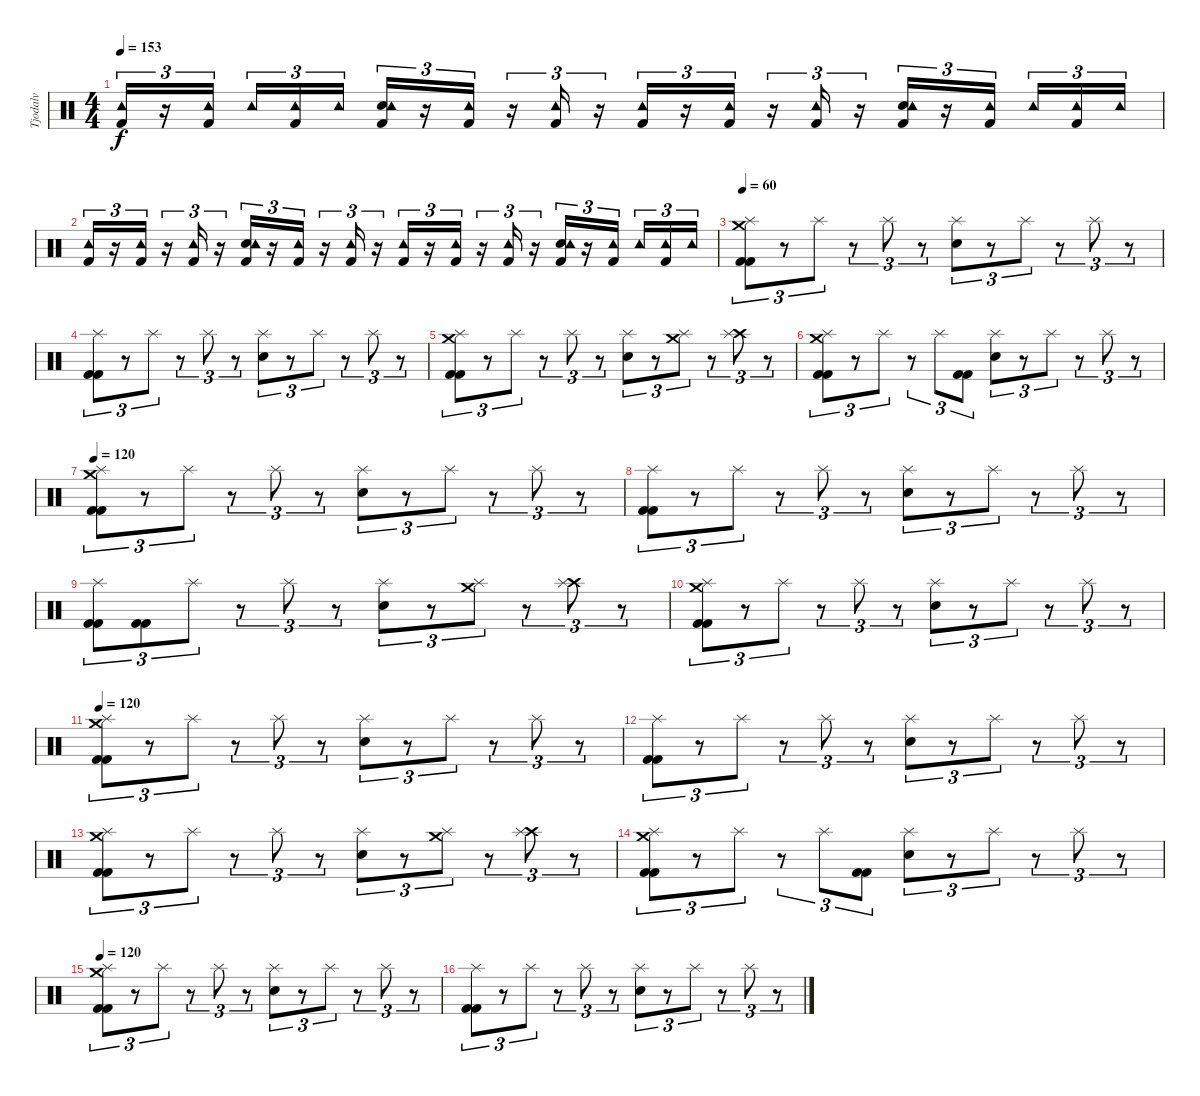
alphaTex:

\track ("Tjodalv" "Tjodalv") {instrument percussion}
\staff {score}
\articulation defaults
\ts (4 4)
\tempo 153
\clef neutral
\ks c
("Kick (hit) 2" "Tambourine (hit)").16{tu (3 2) dy f} r.16{tu (3 2)} ("Kick (hit) 2" "Tambourine (hit)").16{tu (3 2)} "Tambourine (hit)".16{tu (3 2)} ("Kick (hit) 2" "Tambourine (hit)").16{tu (3 2)} "Tambourine (hit)".16{tu (3 2)} ("Kick (hit) 2" "Snare (hit) 2" "Tambourine (hit)").16{tu (3 2)} r.16{tu (3 2)} ("Kick (hit) 2" "Tambourine (hit)").16{tu (3 2)} r.16{tu (3 2)} ("Kick (hit) 2" "Tambourine (hit)").16{tu (3 2)} r.16{tu (3 2)} ("Kick (hit) 2" "Tambourine (hit)").16{tu (3 2)} r.16{tu (3 2)} ("Kick (hit) 2" "Tambourine (hit)").16{tu (3 2)} r.16{tu (3 2)} ("Kick (hit) 2" "Tambourine (hit)").16{tu (3 2)} r.16{tu (3 2)} ("Kick (hit) 2" "Snare (hit) 2" "Tambourine (hit)").16{tu (3 2)} r.16{tu (3 2)} ("Kick (hit) 2" "Tambourine (hit)").16{tu (3 2)} "Tambourine (hit)".16{tu (3 2)} ("Kick (hit) 2" "Tambourine (hit)").16{tu (3 2)} "Tambourine (hit)".16{tu (3 2)} |
("Kick (hit) 2" "Tambourine (hit)").16{tu (3 2)} r.16{tu (3 2)} ("Kick (hit) 2" "Tambourine (hit)").16{tu (3 2)} r.16{tu (3 2)} ("Kick (hit) 2" "Tambourine (hit)").16{tu (3 2)} r.16{tu (3 2)} ("Kick (hit) 2" "Snare (hit) 2" "Tambourine (hit)").16{tu (3 2)} r.16{tu (3 2)} ("Kick (hit) 2" "Tambourine (hit)").16{tu (3 2)} r.16{tu (3 2)} ("Kick (hit) 2" "Tambourine (hit)").16{tu (3 2)} r.16{tu (3 2)} ("Kick (hit) 2" "Tambourine (hit)").16{tu (3 2)} r.16{tu (3 2)} ("Kick (hit) 2" "Tambourine (hit)").16{tu (3 2)} r.16{tu (3 2)} ("Kick (hit) 2" "Tambourine (hit)").16{tu (3 2)} r.16{tu (3 2)} ("Kick (hit) 2" "Snare (hit) 2" "Tambourine (hit)").16{tu (3 2)} r.16{tu (3 2)} ("Kick (hit) 2" "Tambourine (hit)").16{tu (3 2)} "Tambourine (hit)".16{tu (3 2)} ("Kick (hit) 2" "Tambourine (hit)").16{tu (3 2)} "Tambourine (hit)".16{tu (3 2)} |
\tempo 120
\tempo 60
("Kick (hit) 2" "Kick (hit) 2" "Crash medium (hit)" "Splash (hit)").8{tu (3 2)} r.8{tu (3 2)} "Splash (hit)".8{tu (3 2)} r.8{tu (3 2)} "Splash (hit)".8{tu (3 2)} r.8{tu (3 2)} ("Snare (hit) 2" "Splash (hit)").8{tu (3 2)} r.8{tu (3 2)} "Splash (hit)".8{tu (3 2)} r.8{tu (3 2)} "Splash (hit)".8{tu (3 2)} r.8{tu (3 2)} |
("Kick (hit) 2" "Kick (hit) 2" "Splash (hit)").8{tu (3 2)} r.8{tu (3 2)} "Splash (hit)".8{tu (3 2)} r.8{tu (3 2)} "Splash (hit)".8{tu (3 2)} r.8{tu (3 2)} ("Snare (hit) 2" "Splash (hit)").8{tu (3 2)} r.8{tu (3 2)} "Splash (hit)".8{tu (3 2)} r.8{tu (3 2)} "Splash (hit)".8{tu (3 2)} r.8{tu (3 2)} |
("Kick (hit) 2" "Kick (hit) 2" "Crash medium (hit)" "Splash (hit)").8{tu (3 2)} r.8{tu (3 2)} "Splash (hit)".8{tu (3 2)} r.8{tu (3 2)} "Splash (hit)".8{tu (3 2)} r.8{tu (3 2)} ("Snare (hit) 2" "Splash (hit)").8{tu (3 2)} r.8{tu (3 2)} ("Crash medium (hit)" "Splash (hit)").8{tu (3 2)} r.8{tu (3 2)} ("Crash high (hit)" "Splash (hit)").8{tu (3 2)} r.8{tu (3 2)} |
("Kick (hit) 2" "Crash medium (hit)" "Kick (hit) 2" "Splash (hit)").8{tu (3 2)} r.8{tu (3 2)} "Splash (hit)".8{tu (3 2)} r.8{tu (3 2)} "Splash (hit)".8{tu (3 2)} ("Kick (hit) 2" "Kick (hit) 2").8{tu (3 2)} ("Snare (hit) 2" "Splash (hit)").8{tu (3 2)} r.8{tu (3 2)} "Splash (hit)".8{tu (3 2)} r.8{tu (3 2)} "Splash (hit)".8{tu (3 2)} r.8{tu (3 2)} |
\tempo 120
("Kick (hit) 2" "Kick (hit) 2" "Crash medium (hit)" "Splash (hit)").8{tu (3 2)} r.8{tu (3 2)} "Splash (hit)".8{tu (3 2)} r.8{tu (3 2)} "Splash (hit)".8{tu (3 2)} r.8{tu (3 2)} ("Snare (hit) 2" "Splash (hit)").8{tu (3 2)} r.8{tu (3 2)} "Splash (hit)".8{tu (3 2)} r.8{tu (3 2)} "Splash (hit)".8{tu (3 2)} r.8{tu (3 2)} |
("Kick (hit) 2" "Kick (hit) 2" "Splash (hit)").8{tu (3 2)} r.8{tu (3 2)} "Splash (hit)".8{tu (3 2)} r.8{tu (3 2)} "Splash (hit)".8{tu (3 2)} r.8{tu (3 2)} ("Snare (hit) 2" "Splash (hit)").8{tu (3 2)} r.8{tu (3 2)} "Splash (hit)".8{tu (3 2)} r.8{tu (3 2)} "Splash (hit)".8{tu (3 2)} r.8{tu (3 2)} |
("Kick (hit) 2" "Kick (hit) 2" "Splash (hit)").8{tu (3 2)} ("Kick (hit) 2" "Kick (hit) 2").8{tu (3 2)} "Splash (hit)".8{tu (3 2)} r.8{tu (3 2)} "Splash (hit)".8{tu (3 2)} r.8{tu (3 2)} ("Snare (hit) 2" "Splash (hit)").8{tu (3 2)} r.8{tu (3 2)} ("Crash medium (hit)" "Splash (hit)").8{tu (3 2)} r.8{tu (3 2)} ("Crash high (hit)" "Splash (hit)").8{tu (3 2)} r.8{tu (3 2)} |
("Kick (hit) 2" "Kick (hit) 2" "Crash medium (hit)" "Splash (hit)").8{tu (3 2)} r.8{tu (3 2)} "Splash (hit)".8{tu (3 2)} r.8{tu (3 2)} "Splash (hit)".8{tu (3 2)} r.8{tu (3 2)} ("Snare (hit) 2" "Splash (hit)").8{tu (3 2)} r.8{tu (3 2)} "Splash (hit)".8{tu (3 2)} r.8{tu (3 2)} "Splash (hit)".8{tu (3 2)} r.8{tu (3 2)} |
\tempo 120
("Kick (hit) 2" "Kick (hit) 2" "Crash medium (hit)" "Splash (hit)").8{tu (3 2)} r.8{tu (3 2)} "Splash (hit)".8{tu (3 2)} r.8{tu (3 2)} "Splash (hit)".8{tu (3 2)} r.8{tu (3 2)} ("Snare (hit) 2" "Splash (hit)").8{tu (3 2)} r.8{tu (3 2)} "Splash (hit)".8{tu (3 2)} r.8{tu (3 2)} "Splash (hit)".8{tu (3 2)} r.8{tu (3 2)} |
("Kick (hit) 2" "Kick (hit) 2" "Splash (hit)").8{tu (3 2)} r.8{tu (3 2)} "Splash (hit)".8{tu (3 2)} r.8{tu (3 2)} "Splash (hit)".8{tu (3 2)} r.8{tu (3 2)} ("Snare (hit) 2" "Splash (hit)").8{tu (3 2)} r.8{tu (3 2)} "Splash (hit)".8{tu (3 2)} r.8{tu (3 2)} "Splash (hit)".8{tu (3 2)} r.8{tu (3 2)} |
("Kick (hit) 2" "Kick (hit) 2" "Crash medium (hit)" "Splash (hit)").8{tu (3 2)} r.8{tu (3 2)} "Splash (hit)".8{tu (3 2)} r.8{tu (3 2)} "Splash (hit)".8{tu (3 2)} r.8{tu (3 2)} ("Snare (hit) 2" "Splash (hit)").8{tu (3 2)} r.8{tu (3 2)} ("Crash medium (hit)" "Splash (hit)").8{tu (3 2)} r.8{tu (3 2)} ("Crash high (hit)" "Splash (hit)").8{tu (3 2)} r.8{tu (3 2)} |
("Kick (hit) 2" "Crash medium (hit)" "Kick (hit) 2" "Splash (hit)").8{tu (3 2)} r.8{tu (3 2)} "Splash (hit)".8{tu (3 2)} r.8{tu (3 2)} "Splash (hit)".8{tu (3 2)} ("Kick (hit) 2" "Kick (hit) 2").8{tu (3 2)} ("Snare (hit) 2" "Splash (hit)").8{tu (3 2)} r.8{tu (3 2)} "Splash (hit)".8{tu (3 2)} r.8{tu (3 2)} "Splash (hit)".8{tu (3 2)} r.8{tu (3 2)} |
\tempo 120
("Kick (hit) 2" "Kick (hit) 2" "Crash medium (hit)" "Splash (hit)").8{tu (3 2)} r.8{tu (3 2)} "Splash (hit)".8{tu (3 2)} r.8{tu (3 2)} "Splash (hit)".8{tu (3 2)} r.8{tu (3 2)} ("Snare (hit) 2" "Splash (hit)").8{tu (3 2)} r.8{tu (3 2)} "Splash (hit)".8{tu (3 2)} r.8{tu (3 2)} "Splash (hit)".8{tu (3 2)} r.8{tu (3 2)} |
("Kick (hit) 2" "Kick (hit) 2" "Splash (hit)").8{tu (3 2)} r.8{tu (3 2)} "Splash (hit)".8{tu (3 2)} r.8{tu (3 2)} "Splash (hit)".8{tu (3 2)} r.8{tu (3 2)} ("Snare (hit) 2" "Splash (hit)").8{tu (3 2)} r.8{tu (3 2)} "Splash (hit)".8{tu (3 2)} r.8{tu (3 2)} "Splash (hit)".8{tu (3 2)} r.8{tu (3 2)}
